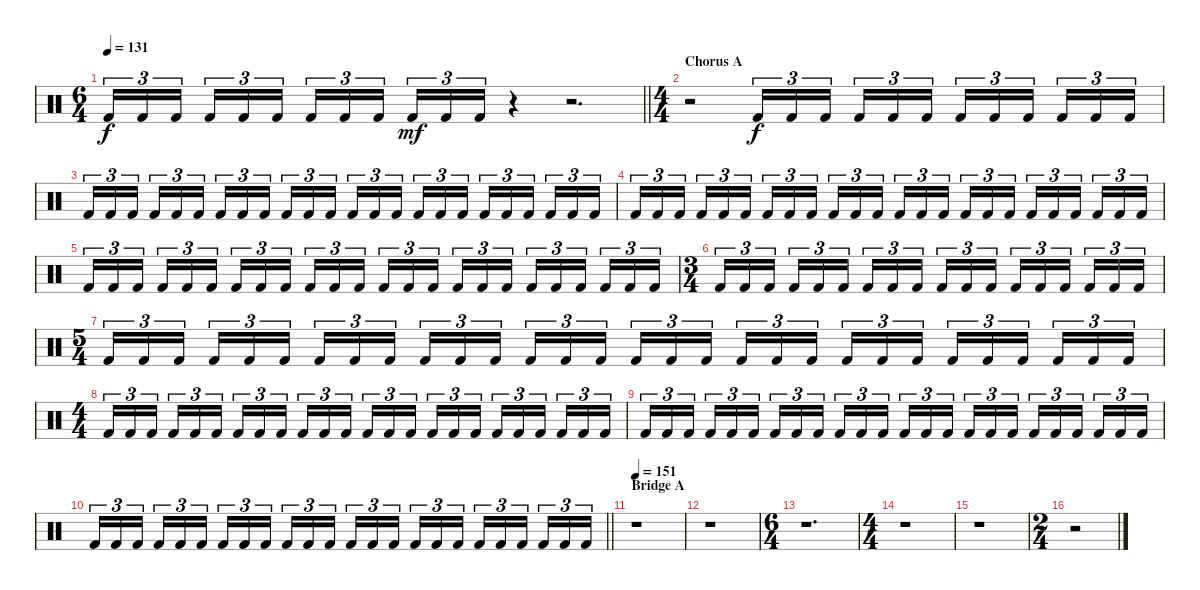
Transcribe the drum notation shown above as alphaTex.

\track "" {instrument percussion}
\staff {score}
\articulation defaults
\ts (6 4)
\tempo 131
\clef neutral
\barLineRight lightlight
\ks c "Kick (hit) 2".16{tu (3 2) dy f} "Kick (hit) 2".16{tu (3 2)} "Kick (hit) 2".16{tu (3 2) beam splitsecondary} "Kick (hit) 2".16{tu (3 2)} "Kick (hit) 2".16{tu (3 2)} "Kick (hit) 2".16{tu (3 2) beam splitsecondary} "Kick (hit) 2".16{tu (3 2)} "Kick (hit) 2".16{tu (3 2)} "Kick (hit) 2".16{tu (3 2) beam splitsecondary} "Kick (hit) 2".16{tu (3 2) dy mf} "Kick (hit) 2".16{tu (3 2)} "Kick (hit) 2".16{tu (3 2)}
r.4 r.2{d} |
\ts (4 4)
\section ("" "Chorus A")
r.2 "Kick (hit) 2".16{tu (3 2) dy f} "Kick (hit) 2".16{tu (3 2)} "Kick (hit) 2".16{tu (3 2) beam splitsecondary} "Kick (hit) 2".16{tu (3 2)} "Kick (hit) 2".16{tu (3 2)} "Kick (hit) 2".16{tu (3 2)} "Kick (hit) 2".16{tu (3 2)} "Kick (hit) 2".16{tu (3 2)} "Kick (hit) 2".16{tu (3 2) beam splitsecondary} "Kick (hit) 2".16{tu (3 2)} "Kick (hit) 2".16{tu (3 2)} "Kick (hit) 2".16{tu (3 2)} |
"Kick (hit) 2".16{tu (3 2)} "Kick (hit) 2".16{tu (3 2)} "Kick (hit) 2".16{tu (3 2) beam splitsecondary} "Kick (hit) 2".16{tu (3 2)} "Kick (hit) 2".16{tu (3 2)} "Kick (hit) 2".16{tu (3 2)} "Kick (hit) 2".16{tu (3 2)} "Kick (hit) 2".16{tu (3 2)} "Kick (hit) 2".16{tu (3 2) beam splitsecondary} "Kick (hit) 2".16{tu (3 2)} "Kick (hit) 2".16{tu (3 2)} "Kick (hit) 2".16{tu (3 2)} "Kick (hit) 2".16{tu (3 2)} "Kick (hit) 2".16{tu (3 2)} "Kick (hit) 2".16{tu (3 2) beam splitsecondary} "Kick (hit) 2".16{tu (3 2)} "Kick (hit) 2".16{tu (3 2)} "Kick (hit) 2".16{tu (3 2)} "Kick (hit) 2".16{tu (3 2)} "Kick (hit) 2".16{tu (3 2)} "Kick (hit) 2".16{tu (3 2) beam splitsecondary} "Kick (hit) 2".16{tu (3 2)} "Kick (hit) 2".16{tu (3 2)} "Kick (hit) 2".16{tu (3 2)} |
"Kick (hit) 2".16{tu (3 2)} "Kick (hit) 2".16{tu (3 2)} "Kick (hit) 2".16{tu (3 2) beam splitsecondary} "Kick (hit) 2".16{tu (3 2)} "Kick (hit) 2".16{tu (3 2)} "Kick (hit) 2".16{tu (3 2)} "Kick (hit) 2".16{tu (3 2)} "Kick (hit) 2".16{tu (3 2)} "Kick (hit) 2".16{tu (3 2) beam splitsecondary} "Kick (hit) 2".16{tu (3 2)} "Kick (hit) 2".16{tu (3 2)} "Kick (hit) 2".16{tu (3 2)} "Kick (hit) 2".16{tu (3 2)} "Kick (hit) 2".16{tu (3 2)} "Kick (hit) 2".16{tu (3 2) beam splitsecondary} "Kick (hit) 2".16{tu (3 2)} "Kick (hit) 2".16{tu (3 2)} "Kick (hit) 2".16{tu (3 2)} "Kick (hit) 2".16{tu (3 2)} "Kick (hit) 2".16{tu (3 2)} "Kick (hit) 2".16{tu (3 2) beam splitsecondary} "Kick (hit) 2".16{tu (3 2)} "Kick (hit) 2".16{tu (3 2)} "Kick (hit) 2".16{tu (3 2)} |
"Kick (hit) 2".16{tu (3 2)} "Kick (hit) 2".16{tu (3 2)} "Kick (hit) 2".16{tu (3 2) beam splitsecondary} "Kick (hit) 2".16{tu (3 2)} "Kick (hit) 2".16{tu (3 2)} "Kick (hit) 2".16{tu (3 2)} "Kick (hit) 2".16{tu (3 2)} "Kick (hit) 2".16{tu (3 2)} "Kick (hit) 2".16{tu (3 2) beam splitsecondary} "Kick (hit) 2".16{tu (3 2)} "Kick (hit) 2".16{tu (3 2)} "Kick (hit) 2".16{tu (3 2)} "Kick (hit) 2".16{tu (3 2)} "Kick (hit) 2".16{tu (3 2)} "Kick (hit) 2".16{tu (3 2) beam splitsecondary} "Kick (hit) 2".16{tu (3 2)} "Kick (hit) 2".16{tu (3 2)} "Kick (hit) 2".16{tu (3 2)} "Kick (hit) 2".16{tu (3 2)} "Kick (hit) 2".16{tu (3 2)} "Kick (hit) 2".16{tu (3 2) beam splitsecondary} "Kick (hit) 2".16{tu (3 2)} "Kick (hit) 2".16{tu (3 2)} "Kick (hit) 2".16{tu (3 2)} |
\ts (3 4)
"Kick (hit) 2".16{tu (3 2)} "Kick (hit) 2".16{tu (3 2)} "Kick (hit) 2".16{tu (3 2) beam splitsecondary} "Kick (hit) 2".16{tu (3 2)} "Kick (hit) 2".16{tu (3 2)} "Kick (hit) 2".16{tu (3 2)} "Kick (hit) 2".16{tu (3 2)} "Kick (hit) 2".16{tu (3 2)} "Kick (hit) 2".16{tu (3 2) beam splitsecondary} "Kick (hit) 2".16{tu (3 2)} "Kick (hit) 2".16{tu (3 2)} "Kick (hit) 2".16{tu (3 2)} "Kick (hit) 2".16{tu (3 2)} "Kick (hit) 2".16{tu (3 2)} "Kick (hit) 2".16{tu (3 2) beam splitsecondary} "Kick (hit) 2".16{tu (3 2)} "Kick (hit) 2".16{tu (3 2)} "Kick (hit) 2".16{tu (3 2)} |
\ts (5 4)
"Kick (hit) 2".16{tu (3 2)} "Kick (hit) 2".16{tu (3 2)} "Kick (hit) 2".16{tu (3 2) beam splitsecondary} "Kick (hit) 2".16{tu (3 2)} "Kick (hit) 2".16{tu (3 2)} "Kick (hit) 2".16{tu (3 2)} "Kick (hit) 2".16{tu (3 2)} "Kick (hit) 2".16{tu (3 2)} "Kick (hit) 2".16{tu (3 2) beam splitsecondary} "Kick (hit) 2".16{tu (3 2)} "Kick (hit) 2".16{tu (3 2)} "Kick (hit) 2".16{tu (3 2)} "Kick (hit) 2".16{tu (3 2)} "Kick (hit) 2".16{tu (3 2)} "Kick (hit) 2".16{tu (3 2) beam splitsecondary} "Kick (hit) 2".16{tu (3 2)} "Kick (hit) 2".16{tu (3 2)} "Kick (hit) 2".16{tu (3 2)} "Kick (hit) 2".16{tu (3 2)} "Kick (hit) 2".16{tu (3 2)} "Kick (hit) 2".16{tu (3 2) beam splitsecondary} "Kick (hit) 2".16{tu (3 2)} "Kick (hit) 2".16{tu (3 2)} "Kick (hit) 2".16{tu (3 2)} "Kick (hit) 2".16{tu (3 2)} "Kick (hit) 2".16{tu (3 2)} "Kick (hit) 2".16{tu (3 2) beam splitsecondary} "Kick (hit) 2".16{tu (3 2)} "Kick (hit) 2".16{tu (3 2)} "Kick (hit) 2".16{tu (3 2)} |
\ts (4 4)
"Kick (hit) 2".16{tu (3 2)} "Kick (hit) 2".16{tu (3 2)} "Kick (hit) 2".16{tu (3 2) beam splitsecondary} "Kick (hit) 2".16{tu (3 2)} "Kick (hit) 2".16{tu (3 2)} "Kick (hit) 2".16{tu (3 2)} "Kick (hit) 2".16{tu (3 2)} "Kick (hit) 2".16{tu (3 2)} "Kick (hit) 2".16{tu (3 2) beam splitsecondary} "Kick (hit) 2".16{tu (3 2)} "Kick (hit) 2".16{tu (3 2)} "Kick (hit) 2".16{tu (3 2)} "Kick (hit) 2".16{tu (3 2)} "Kick (hit) 2".16{tu (3 2)} "Kick (hit) 2".16{tu (3 2) beam splitsecondary} "Kick (hit) 2".16{tu (3 2)} "Kick (hit) 2".16{tu (3 2)} "Kick (hit) 2".16{tu (3 2)} "Kick (hit) 2".16{tu (3 2)} "Kick (hit) 2".16{tu (3 2)} "Kick (hit) 2".16{tu (3 2) beam splitsecondary} "Kick (hit) 2".16{tu (3 2)} "Kick (hit) 2".16{tu (3 2)} "Kick (hit) 2".16{tu (3 2)} |
"Kick (hit) 2".16{tu (3 2)} "Kick (hit) 2".16{tu (3 2)} "Kick (hit) 2".16{tu (3 2) beam splitsecondary} "Kick (hit) 2".16{tu (3 2)} "Kick (hit) 2".16{tu (3 2)} "Kick (hit) 2".16{tu (3 2)} "Kick (hit) 2".16{tu (3 2)} "Kick (hit) 2".16{tu (3 2)} "Kick (hit) 2".16{tu (3 2) beam splitsecondary} "Kick (hit) 2".16{tu (3 2)} "Kick (hit) 2".16{tu (3 2)} "Kick (hit) 2".16{tu (3 2)} "Kick (hit) 2".16{tu (3 2)} "Kick (hit) 2".16{tu (3 2)} "Kick (hit) 2".16{tu (3 2) beam splitsecondary} "Kick (hit) 2".16{tu (3 2)} "Kick (hit) 2".16{tu (3 2)} "Kick (hit) 2".16{tu (3 2)} "Kick (hit) 2".16{tu (3 2)} "Kick (hit) 2".16{tu (3 2)} "Kick (hit) 2".16{tu (3 2) beam splitsecondary} "Kick (hit) 2".16{tu (3 2)} "Kick (hit) 2".16{tu (3 2)} "Kick (hit) 2".16{tu (3 2)} |
\barLineRight lightlight "Kick (hit) 2".16{tu (3 2)} "Kick (hit) 2".16{tu (3 2)} "Kick (hit) 2".16{tu (3 2) beam splitsecondary} "Kick (hit) 2".16{tu (3 2)} "Kick (hit) 2".16{tu (3 2)} "Kick (hit) 2".16{tu (3 2)} "Kick (hit) 2".16{tu (3 2)} "Kick (hit) 2".16{tu (3 2)} "Kick (hit) 2".16{tu (3 2) beam splitsecondary} "Kick (hit) 2".16{tu (3 2)} "Kick (hit) 2".16{tu (3 2)} "Kick (hit) 2".16{tu (3 2)} "Kick (hit) 2".16{tu (3 2)} "Kick (hit) 2".16{tu (3 2)} "Kick (hit) 2".16{tu (3 2) beam splitsecondary} "Kick (hit) 2".16{tu (3 2)} "Kick (hit) 2".16{tu (3 2)} "Kick (hit) 2".16{tu (3 2)} "Kick (hit) 2".16{tu (3 2)} "Kick (hit) 2".16{tu (3 2)} "Kick (hit) 2".16{tu (3 2) beam splitsecondary} "Kick (hit) 2".16{tu (3 2)} "Kick (hit) 2".16{tu (3 2)} "Kick (hit) 2".16{tu (3 2)}
|
\section ("" "Bridge A")
\tempo 151
r.1 |
r.1 |
\ts (6 4)
r.1{d} |
\ts (4 4)
r.1 |
r.1 |
\ts (2 4)
r.2
